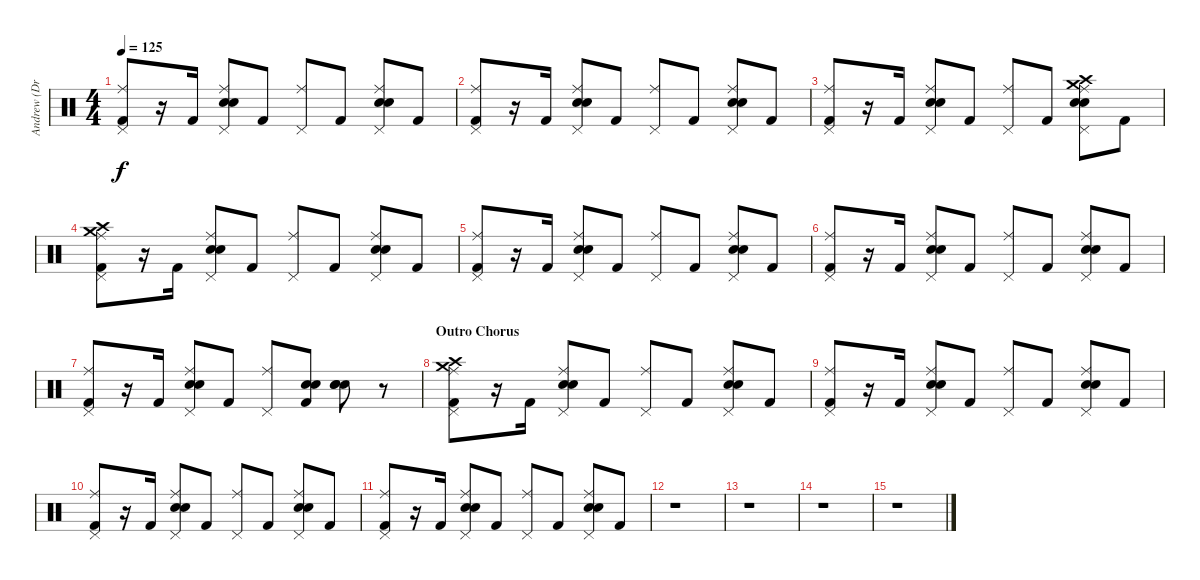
\track ("Andrew (Drums)" "Andrew (Dr") {instrument percussion}
\staff {score}
\articulation defaults
\ts (4 4)
\tempo 125
\clef neutral
\ks c
("Pedal Hi-Hat (hit)" "Ride (middle)" "Kick (hit) 2").8{dy f} r.16 "Kick (hit) 2".16 ("Pedal Hi-Hat (hit)" "Ride (middle)" "Snare (hit) 2" "Electric Snare (hit)").8 "Kick (hit) 2".8 ("Pedal Hi-Hat (hit)" "Ride (middle)").8 "Kick (hit) 2".8 ("Pedal Hi-Hat (hit)" "Ride (middle)" "Snare (hit) 2" "Electric Snare (hit)").8 "Kick (hit) 2".8 |
("Pedal Hi-Hat (hit)" "Ride (middle)" "Kick (hit) 2").8 r.16 "Kick (hit) 2".16 ("Pedal Hi-Hat (hit)" "Ride (middle)" "Snare (hit) 2" "Electric Snare (hit)").8 "Kick (hit) 2".8 ("Pedal Hi-Hat (hit)" "Ride (middle)").8 "Kick (hit) 2".8 ("Pedal Hi-Hat (hit)" "Ride (middle)" "Snare (hit) 2" "Electric Snare (hit)").8 "Kick (hit) 2".8 |
("Pedal Hi-Hat (hit)" "Ride (middle)" "Kick (hit) 2").8 r.16 "Kick (hit) 2".16 ("Pedal Hi-Hat (hit)" "Ride (middle)" "Snare (hit) 2" "Electric Snare (hit)").8 "Kick (hit) 2".8 ("Pedal Hi-Hat (hit)" "Ride (middle)").8 "Kick (hit) 2".8 ("Crash medium (hit)" "Crash high (hit)" "Pedal Hi-Hat (hit)" "Ride (middle)" "Snare (hit) 2" "Electric Snare (hit)").8 "Kick (hit) 2".8 |
("Crash high (hit)" "Crash medium (hit)" "Pedal Hi-Hat (hit)" "Ride (middle)" "Kick (hit) 2").8 r.16 "Kick (hit) 2".16 ("Pedal Hi-Hat (hit)" "Ride (middle)" "Snare (hit) 2" "Electric Snare (hit)").8 "Kick (hit) 2".8 ("Pedal Hi-Hat (hit)" "Ride (middle)").8 "Kick (hit) 2".8 ("Pedal Hi-Hat (hit)" "Ride (middle)" "Snare (hit) 2" "Electric Snare (hit)").8 "Kick (hit) 2".8 |
("Pedal Hi-Hat (hit)" "Ride (middle)" "Kick (hit) 2").8 r.16 "Kick (hit) 2".16 ("Pedal Hi-Hat (hit)" "Ride (middle)" "Snare (hit) 2" "Electric Snare (hit)").8 "Kick (hit) 2".8 ("Pedal Hi-Hat (hit)" "Ride (middle)").8 "Kick (hit) 2".8 ("Pedal Hi-Hat (hit)" "Ride (middle)" "Snare (hit) 2" "Electric Snare (hit)").8 "Kick (hit) 2".8 |
("Pedal Hi-Hat (hit)" "Ride (middle)" "Kick (hit) 2").8 r.16 "Kick (hit) 2".16 ("Pedal Hi-Hat (hit)" "Ride (middle)" "Snare (hit) 2" "Electric Snare (hit)").8 "Kick (hit) 2".8 ("Pedal Hi-Hat (hit)" "Ride (middle)").8 "Kick (hit) 2".8 ("Pedal Hi-Hat (hit)" "Ride (middle)" "Snare (hit) 2" "Electric Snare (hit)").8 "Kick (hit) 2".8 |
("Pedal Hi-Hat (hit)" "Ride (middle)" "Kick (hit) 2").8{volume 8} r.16 "Kick (hit) 2".16 ("Pedal Hi-Hat (hit)" "Ride (middle)" "Snare (hit) 2" "Electric Snare (hit)").8 "Kick (hit) 2".8 ("Pedal Hi-Hat (hit)" "Ride (middle)").8 ("Electric Snare (hit)" "Snare (hit) 2" "Kick (hit) 2").8 ("Electric Snare (hit)" "Snare (hit) 2" "Electric Snare (hit)").8 r.8 |
\section ("" "Outro Chorus")
("Crash high (hit)" "Crash medium (hit)" "Pedal Hi-Hat (hit)" "Ride (middle)" "Kick (hit) 2").8 r.16 "Kick (hit) 2".16 ("Pedal Hi-Hat (hit)" "Ride (middle)" "Snare (hit) 2" "Electric Snare (hit)").8 "Kick (hit) 2".8 ("Pedal Hi-Hat (hit)" "Ride (middle)").8 "Kick (hit) 2".8 ("Pedal Hi-Hat (hit)" "Ride (middle)" "Snare (hit) 2" "Electric Snare (hit)").8 "Kick (hit) 2".8 |
("Pedal Hi-Hat (hit)" "Ride (middle)" "Kick (hit) 2").8 r.16 "Kick (hit) 2".16 ("Pedal Hi-Hat (hit)" "Ride (middle)" "Snare (hit) 2" "Electric Snare (hit)").8 "Kick (hit) 2".8 ("Pedal Hi-Hat (hit)" "Ride (middle)").8 "Kick (hit) 2".8 ("Pedal Hi-Hat (hit)" "Ride (middle)" "Snare (hit) 2" "Electric Snare (hit)").8 "Kick (hit) 2".8 |
("Pedal Hi-Hat (hit)" "Ride (middle)" "Kick (hit) 2").8{volume 0} r.16 "Kick (hit) 2".16 ("Pedal Hi-Hat (hit)" "Ride (middle)" "Snare (hit) 2" "Electric Snare (hit)").8 "Kick (hit) 2".8 ("Pedal Hi-Hat (hit)" "Ride (middle)").8 "Kick (hit) 2".8 ("Pedal Hi-Hat (hit)" "Ride (middle)" "Snare (hit) 2" "Electric Snare (hit)").8 "Kick (hit) 2".8 |
("Pedal Hi-Hat (hit)" "Ride (middle)" "Kick (hit) 2").8 r.16 "Kick (hit) 2".16 ("Pedal Hi-Hat (hit)" "Ride (middle)" "Snare (hit) 2" "Electric Snare (hit)").8 "Kick (hit) 2".8 ("Pedal Hi-Hat (hit)" "Ride (middle)").8 "Kick (hit) 2".8 ("Pedal Hi-Hat (hit)" "Ride (middle)" "Snare (hit) 2" "Electric Snare (hit)").8 "Kick (hit) 2".8 |
r.1 |
r.1 |
r.1 |
r.1
